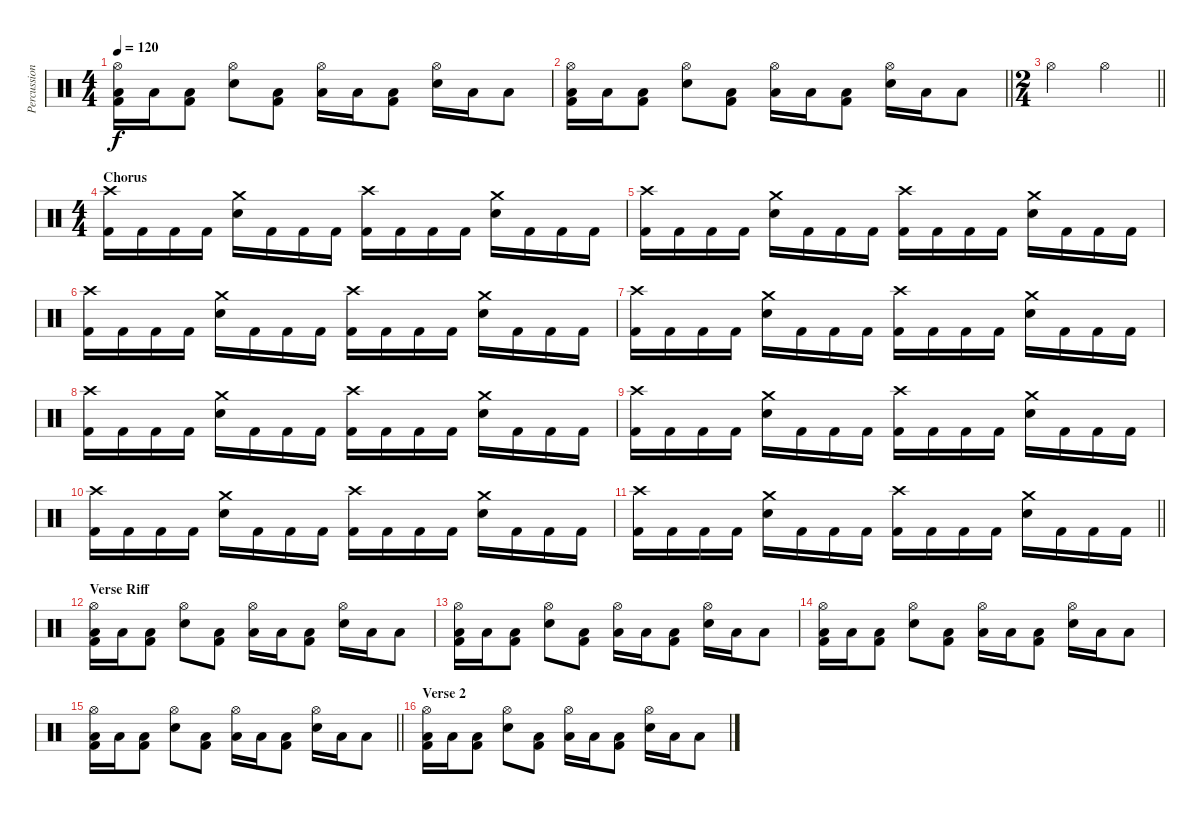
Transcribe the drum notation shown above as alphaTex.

\track ("Percussion" "Percussion") {instrument percussion}
\staff {score}
\articulation defaults
\ts (4 4)
\tempo 120
\clef neutral
\ks c
("Hi-Hat (open)" "Low Floor Tom (hit)" "Kick (hit) 2").16{dy f} "Low Floor Tom (hit)".16 ("Low Floor Tom (hit)" "Kick (hit) 2").8 ("Hi-Hat (open)" "Electric Snare (hit)").8 ("Low Floor Tom (hit)" "Kick (hit) 2").8 ("Hi-Hat (open)" "Low Floor Tom (hit)").16 "Low Floor Tom (hit)".16 ("Low Floor Tom (hit)" "Kick (hit) 2").8 ("Hi-Hat (open)" "Electric Snare (hit)").16 "Low Floor Tom (hit)".16 "Low Floor Tom (hit)".8 |
\barLineRight lightlight
("Hi-Hat (open)" "Low Floor Tom (hit)" "Kick (hit) 2").16 "Low Floor Tom (hit)".16 ("Low Floor Tom (hit)" "Kick (hit) 2").8 ("Hi-Hat (open)" "Electric Snare (hit)").8 ("Low Floor Tom (hit)" "Kick (hit) 2").8 ("Hi-Hat (open)" "Low Floor Tom (hit)").16 "Low Floor Tom (hit)".16 ("Low Floor Tom (hit)" "Kick (hit) 2").8 ("Hi-Hat (open)" "Electric Snare (hit)").16 "Low Floor Tom (hit)".16 "Low Floor Tom (hit)".8 |
\ts (2 4)
\barLineRight lightlight "Hi-Hat (open)".4 "Hi-Hat (open)".4
|
\ts (4 4)
\section ("" "Chorus")
("Crash high (hit)" "Kick (hit) 2").16 "Kick (hit) 2".16 "Kick (hit) 2".16 "Kick (hit) 2".16 ("Crash medium (hit)" "Electric Snare (hit)").16 "Kick (hit) 2".16 "Kick (hit) 2".16 "Kick (hit) 2".16 ("Crash high (hit)" "Kick (hit) 2").16 "Kick (hit) 2".16 "Kick (hit) 2".16 "Kick (hit) 2".16 ("Crash medium (hit)" "Electric Snare (hit)").16 "Kick (hit) 2".16 "Kick (hit) 2".16 "Kick (hit) 2".16 |
("Crash high (hit)" "Kick (hit) 2").16 "Kick (hit) 2".16 "Kick (hit) 2".16 "Kick (hit) 2".16 ("Crash medium (hit)" "Electric Snare (hit)").16 "Kick (hit) 2".16 "Kick (hit) 2".16 "Kick (hit) 2".16 ("Crash high (hit)" "Kick (hit) 2").16 "Kick (hit) 2".16 "Kick (hit) 2".16 "Kick (hit) 2".16 ("Crash medium (hit)" "Electric Snare (hit)").16 "Kick (hit) 2".16 "Kick (hit) 2".16 "Kick (hit) 2".16 |
("Crash high (hit)" "Kick (hit) 2").16 "Kick (hit) 2".16 "Kick (hit) 2".16 "Kick (hit) 2".16 ("Crash medium (hit)" "Electric Snare (hit)").16 "Kick (hit) 2".16 "Kick (hit) 2".16 "Kick (hit) 2".16 ("Crash high (hit)" "Kick (hit) 2").16 "Kick (hit) 2".16 "Kick (hit) 2".16 "Kick (hit) 2".16 ("Crash medium (hit)" "Electric Snare (hit)").16 "Kick (hit) 2".16 "Kick (hit) 2".16 "Kick (hit) 2".16 |
("Crash high (hit)" "Kick (hit) 2").16 "Kick (hit) 2".16 "Kick (hit) 2".16 "Kick (hit) 2".16 ("Crash medium (hit)" "Electric Snare (hit)").16 "Kick (hit) 2".16 "Kick (hit) 2".16 "Kick (hit) 2".16 ("Crash high (hit)" "Kick (hit) 2").16 "Kick (hit) 2".16 "Kick (hit) 2".16 "Kick (hit) 2".16 ("Crash medium (hit)" "Electric Snare (hit)").16 "Kick (hit) 2".16 "Kick (hit) 2".16 "Kick (hit) 2".16 |
("Crash high (hit)" "Kick (hit) 2").16 "Kick (hit) 2".16 "Kick (hit) 2".16 "Kick (hit) 2".16 ("Crash medium (hit)" "Electric Snare (hit)").16 "Kick (hit) 2".16 "Kick (hit) 2".16 "Kick (hit) 2".16 ("Crash high (hit)" "Kick (hit) 2").16 "Kick (hit) 2".16 "Kick (hit) 2".16 "Kick (hit) 2".16 ("Crash medium (hit)" "Electric Snare (hit)").16 "Kick (hit) 2".16 "Kick (hit) 2".16 "Kick (hit) 2".16 |
("Crash high (hit)" "Kick (hit) 2").16 "Kick (hit) 2".16 "Kick (hit) 2".16 "Kick (hit) 2".16 ("Crash medium (hit)" "Electric Snare (hit)").16 "Kick (hit) 2".16 "Kick (hit) 2".16 "Kick (hit) 2".16 ("Crash high (hit)" "Kick (hit) 2").16 "Kick (hit) 2".16 "Kick (hit) 2".16 "Kick (hit) 2".16 ("Crash medium (hit)" "Electric Snare (hit)").16 "Kick (hit) 2".16 "Kick (hit) 2".16 "Kick (hit) 2".16 |
("Crash high (hit)" "Kick (hit) 2").16 "Kick (hit) 2".16 "Kick (hit) 2".16 "Kick (hit) 2".16 ("Crash medium (hit)" "Electric Snare (hit)").16 "Kick (hit) 2".16 "Kick (hit) 2".16 "Kick (hit) 2".16 ("Crash high (hit)" "Kick (hit) 2").16 "Kick (hit) 2".16 "Kick (hit) 2".16 "Kick (hit) 2".16 ("Crash medium (hit)" "Electric Snare (hit)").16 "Kick (hit) 2".16 "Kick (hit) 2".16 "Kick (hit) 2".16 |
\barLineRight lightlight
("Crash high (hit)" "Kick (hit) 2").16 "Kick (hit) 2".16 "Kick (hit) 2".16 "Kick (hit) 2".16 ("Crash medium (hit)" "Electric Snare (hit)").16 "Kick (hit) 2".16 "Kick (hit) 2".16 "Kick (hit) 2".16 ("Crash high (hit)" "Kick (hit) 2").16 "Kick (hit) 2".16 "Kick (hit) 2".16 "Kick (hit) 2".16 ("Crash medium (hit)" "Electric Snare (hit)").16 "Kick (hit) 2".16 "Kick (hit) 2".16 "Kick (hit) 2".16 |
\section ("" "Verse Riff")
("Hi-Hat (open)" "Low Floor Tom (hit)" "Kick (hit) 2").16 "Low Floor Tom (hit)".16 ("Low Floor Tom (hit)" "Kick (hit) 2").8 ("Hi-Hat (open)" "Electric Snare (hit)").8 ("Low Floor Tom (hit)" "Kick (hit) 2").8 ("Hi-Hat (open)" "Low Floor Tom (hit)").16 "Low Floor Tom (hit)".16 ("Low Floor Tom (hit)" "Kick (hit) 2").8 ("Hi-Hat (open)" "Electric Snare (hit)").16 "Low Floor Tom (hit)".16 "Low Floor Tom (hit)".8 |
("Hi-Hat (open)" "Low Floor Tom (hit)" "Kick (hit) 2").16 "Low Floor Tom (hit)".16 ("Low Floor Tom (hit)" "Kick (hit) 2").8 ("Hi-Hat (open)" "Electric Snare (hit)").8 ("Low Floor Tom (hit)" "Kick (hit) 2").8 ("Hi-Hat (open)" "Low Floor Tom (hit)").16 "Low Floor Tom (hit)".16 ("Low Floor Tom (hit)" "Kick (hit) 2").8 ("Hi-Hat (open)" "Electric Snare (hit)").16 "Low Floor Tom (hit)".16 "Low Floor Tom (hit)".8 |
("Hi-Hat (open)" "Low Floor Tom (hit)" "Kick (hit) 2").16 "Low Floor Tom (hit)".16 ("Low Floor Tom (hit)" "Kick (hit) 2").8 ("Hi-Hat (open)" "Electric Snare (hit)").8 ("Low Floor Tom (hit)" "Kick (hit) 2").8 ("Hi-Hat (open)" "Low Floor Tom (hit)").16 "Low Floor Tom (hit)".16 ("Low Floor Tom (hit)" "Kick (hit) 2").8 ("Hi-Hat (open)" "Electric Snare (hit)").16 "Low Floor Tom (hit)".16 "Low Floor Tom (hit)".8 |
\barLineRight lightlight
("Hi-Hat (open)" "Low Floor Tom (hit)" "Kick (hit) 2").16 "Low Floor Tom (hit)".16 ("Low Floor Tom (hit)" "Kick (hit) 2").8 ("Hi-Hat (open)" "Electric Snare (hit)").8 ("Low Floor Tom (hit)" "Kick (hit) 2").8 ("Hi-Hat (open)" "Low Floor Tom (hit)").16 "Low Floor Tom (hit)".16 ("Low Floor Tom (hit)" "Kick (hit) 2").8 ("Hi-Hat (open)" "Electric Snare (hit)").16 "Low Floor Tom (hit)".16 "Low Floor Tom (hit)".8 |
\section ("" "Verse 2")
("Hi-Hat (open)" "Low Floor Tom (hit)" "Kick (hit) 2").16 "Low Floor Tom (hit)".16 ("Low Floor Tom (hit)" "Kick (hit) 2").8 ("Hi-Hat (open)" "Electric Snare (hit)").8 ("Low Floor Tom (hit)" "Kick (hit) 2").8 ("Hi-Hat (open)" "Low Floor Tom (hit)").16 "Low Floor Tom (hit)".16 ("Low Floor Tom (hit)" "Kick (hit) 2").8 ("Hi-Hat (open)" "Electric Snare (hit)").16 "Low Floor Tom (hit)".16 "Low Floor Tom (hit)".8
